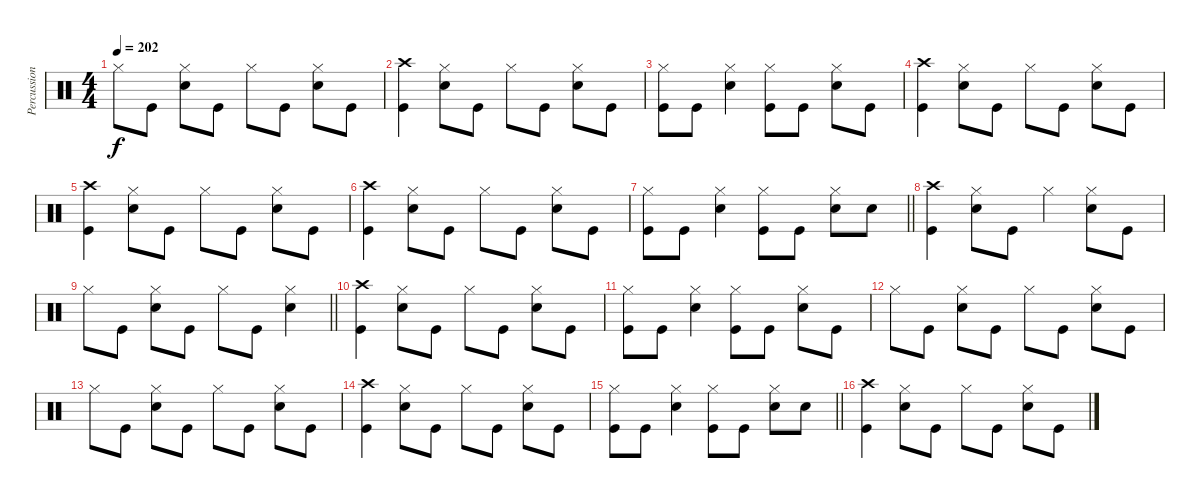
\track ("Percussion" "Percussion") {instrument percussion}
\staff {score}
\articulation defaults
\ts (4 4)
\tempo 202
\clef neutral
\ks c "Hi-Hat (closed)".8{dy f} "Kick (hit)".8
("Hi-Hat (closed)" "Snare (hit) 2").8 "Kick (hit)".8 "Hi-Hat (closed)".8 "Kick (hit)".8 ("Hi-Hat (closed)" "Snare (hit) 2").8 "Kick (hit)".8 |
("Crash high (hit)" "Kick (hit)").4 ("Hi-Hat (closed)" "Snare (hit) 2").8 "Kick (hit)".8 "Hi-Hat (closed)".8 "Kick (hit)".8 ("Hi-Hat (closed)" "Snare (hit) 2").8 "Kick (hit)".8 |
("Hi-Hat (closed)" "Kick (hit)").8 "Kick (hit)".8 ("Hi-Hat (closed)" "Snare (hit) 2").4 ("Hi-Hat (closed)" "Kick (hit)").8 "Kick (hit)".8 ("Hi-Hat (closed)" "Snare (hit) 2").8 "Kick (hit)".8 |
("Crash high (hit)" "Kick (hit)").4 ("Hi-Hat (closed)" "Snare (hit) 2").8 "Kick (hit)".8 "Hi-Hat (closed)".8 "Kick (hit)".8 ("Hi-Hat (closed)" "Snare (hit) 2").8 "Kick (hit)".8 |
("Crash high (hit)" "Kick (hit)").4 ("Hi-Hat (closed)" "Snare (hit) 2").8 "Kick (hit)".8 "Hi-Hat (closed)".8 "Kick (hit)".8 ("Hi-Hat (closed)" "Snare (hit) 2").8 "Kick (hit)".8 |
("Crash high (hit)" "Kick (hit)").4 ("Hi-Hat (closed)" "Snare (hit) 2").8 "Kick (hit)".8 "Hi-Hat (closed)".8 "Kick (hit)".8 ("Hi-Hat (closed)" "Snare (hit) 2").8 "Kick (hit)".8 |
\barLineRight lightlight
("Hi-Hat (closed)" "Kick (hit)").8 "Kick (hit)".8 ("Hi-Hat (closed)" "Snare (hit) 2").4 ("Hi-Hat (closed)" "Kick (hit)").8 "Kick (hit)".8 ("Hi-Hat (closed)" "Snare (hit) 2").8 "Snare (hit) 2".8 |
("Crash high (hit)" "Kick (hit)").4 ("Hi-Hat (closed)" "Snare (hit) 2").8 "Kick (hit)".8 "Hi-Hat (closed)".4 ("Hi-Hat (closed)" "Snare (hit) 2").8 "Kick (hit)".8 |
\barLineRight lightlight "Hi-Hat (closed)".8 "Kick (hit)".8
("Hi-Hat (closed)" "Snare (hit) 2").8 "Kick (hit)".8 "Hi-Hat (closed)".8 "Kick (hit)".8 ("Hi-Hat (closed)" "Snare (hit) 2").4 |
("Crash high (hit)" "Kick (hit)").4 ("Hi-Hat (closed)" "Snare (hit) 2").8 "Kick (hit)".8 "Hi-Hat (closed)".8 "Kick (hit)".8 ("Hi-Hat (closed)" "Snare (hit) 2").8 "Kick (hit)".8 |
("Hi-Hat (closed)" "Kick (hit)").8 "Kick (hit)".8 ("Hi-Hat (closed)" "Snare (hit) 2").4 ("Hi-Hat (closed)" "Kick (hit)").8 "Kick (hit)".8 ("Hi-Hat (closed)" "Snare (hit) 2").8 "Kick (hit)".8 |
"Hi-Hat (closed)".8 "Kick (hit)".8 ("Hi-Hat (closed)" "Snare (hit) 2").8 "Kick (hit)".8 "Hi-Hat (closed)".8 "Kick (hit)".8 ("Hi-Hat (closed)" "Snare (hit) 2").8 "Kick (hit)".8 |
"Hi-Hat (closed)".8 "Kick (hit)".8 ("Hi-Hat (closed)" "Snare (hit) 2").8 "Kick (hit)".8 "Hi-Hat (closed)".8 "Kick (hit)".8 ("Hi-Hat (closed)" "Snare (hit) 2").8 "Kick (hit)".8 |
("Crash high (hit)" "Kick (hit)").4 ("Hi-Hat (closed)" "Snare (hit) 2").8 "Kick (hit)".8 "Hi-Hat (closed)".8 "Kick (hit)".8 ("Hi-Hat (closed)" "Snare (hit) 2").8 "Kick (hit)".8 |
\barLineRight lightlight
("Hi-Hat (closed)" "Kick (hit)").8 "Kick (hit)".8 ("Hi-Hat (closed)" "Snare (hit) 2").4 ("Hi-Hat (closed)" "Kick (hit)").8 "Kick (hit)".8 ("Hi-Hat (closed)" "Snare (hit) 2").8 "Snare (hit) 2".8 |
("Crash high (hit)" "Kick (hit)").4 ("Hi-Hat (closed)" "Snare (hit) 2").8 "Kick (hit)".8 "Hi-Hat (closed)".8 "Kick (hit)".8 ("Hi-Hat (closed)" "Snare (hit) 2").8 "Kick (hit)".8
